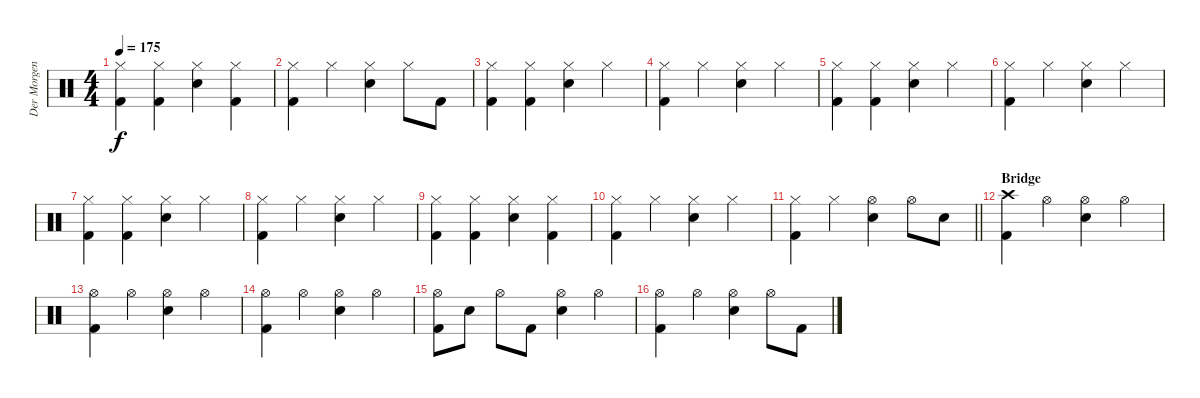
\track ("Der Morgenstern" "Der Morgen") {instrument percussion}
\staff {score}
\articulation defaults
\ts (4 4)
\tempo 175
\clef neutral
\ks c
("Hi-Hat (closed)" "Kick (hit) 2").4{dy f} ("Hi-Hat (closed)" "Kick (hit) 2").4 ("Hi-Hat (closed)" "Electric Snare (hit)").4 ("Hi-Hat (closed)" "Kick (hit) 2").4 |
("Hi-Hat (closed)" "Kick (hit) 2").4 "Hi-Hat (closed)".4 ("Hi-Hat (closed)" "Electric Snare (hit)").4 "Hi-Hat (closed)".8 "Kick (hit) 2".8 |
("Hi-Hat (closed)" "Kick (hit) 2").4 ("Hi-Hat (closed)" "Kick (hit) 2").4 ("Hi-Hat (closed)" "Electric Snare (hit)").4 "Hi-Hat (closed)".4 |
("Hi-Hat (closed)" "Kick (hit) 2").4 "Hi-Hat (closed)".4 ("Hi-Hat (closed)" "Electric Snare (hit)").4 "Hi-Hat (closed)".4 |
("Hi-Hat (closed)" "Kick (hit) 2").4 ("Hi-Hat (closed)" "Kick (hit) 2").4 ("Hi-Hat (closed)" "Electric Snare (hit)").4 "Hi-Hat (closed)".4 |
("Hi-Hat (closed)" "Kick (hit) 2").4 "Hi-Hat (closed)".4 ("Hi-Hat (closed)" "Electric Snare (hit)").4 "Hi-Hat (closed)".4 |
("Hi-Hat (closed)" "Kick (hit) 2").4 ("Hi-Hat (closed)" "Kick (hit) 2").4 ("Hi-Hat (closed)" "Electric Snare (hit)").4 "Hi-Hat (closed)".4 |
("Hi-Hat (closed)" "Kick (hit) 2").4 "Hi-Hat (closed)".4 ("Hi-Hat (closed)" "Electric Snare (hit)").4 "Hi-Hat (closed)".4 |
("Hi-Hat (closed)" "Kick (hit) 2").4 ("Hi-Hat (closed)" "Kick (hit) 2").4 ("Hi-Hat (closed)" "Electric Snare (hit)").4 ("Hi-Hat (closed)" "Kick (hit) 2").4 |
("Hi-Hat (closed)" "Kick (hit) 2").4 "Hi-Hat (closed)".4 ("Hi-Hat (closed)" "Electric Snare (hit)").4 "Hi-Hat (closed)".4 |
\barLineRight lightlight
("Hi-Hat (closed)" "Kick (hit) 2").4 "Hi-Hat (closed)".4 ("Hi-Hat (open)" "Electric Snare (hit)").4 "Hi-Hat (open)".8 "Electric Snare (hit)".8 |
\section ("" "Bridge")
("Crash high (hit)" "Kick (hit) 2").4 "Hi-Hat (open)".4 ("Hi-Hat (open)" "Electric Snare (hit)").4 "Hi-Hat (open)".4 |
("Hi-Hat (open)" "Kick (hit) 2").4 "Hi-Hat (open)".4 ("Hi-Hat (open)" "Electric Snare (hit)").4 "Hi-Hat (open)".4 |
("Hi-Hat (open)" "Kick (hit) 2").4 "Hi-Hat (open)".4 ("Hi-Hat (open)" "Electric Snare (hit)").4 "Hi-Hat (open)".4 |
("Hi-Hat (open)" "Kick (hit) 2").8 "Electric Snare (hit)".8 "Hi-Hat (open)".8 "Kick (hit) 2".8 ("Hi-Hat (open)" "Electric Snare (hit)").4 "Hi-Hat (open)".4 |
("Hi-Hat (open)" "Kick (hit) 2").4 "Hi-Hat (open)".4 ("Hi-Hat (open)" "Electric Snare (hit)").4 "Hi-Hat (open)".8 "Kick (hit) 2".8
